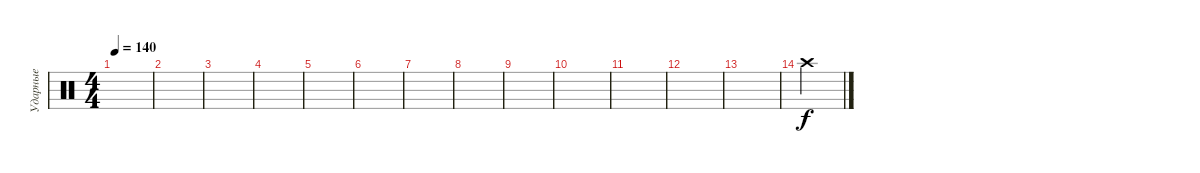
\track ("Ударные" "Ударные") {instrument percussion}
\staff {score}
\articulation defaults
\ts (4 4)
\tempo 140
\clef neutral
\ks c
|
|
|
|
|
|
|
|
|
|
|
|
|
"Crash high (hit)".4
